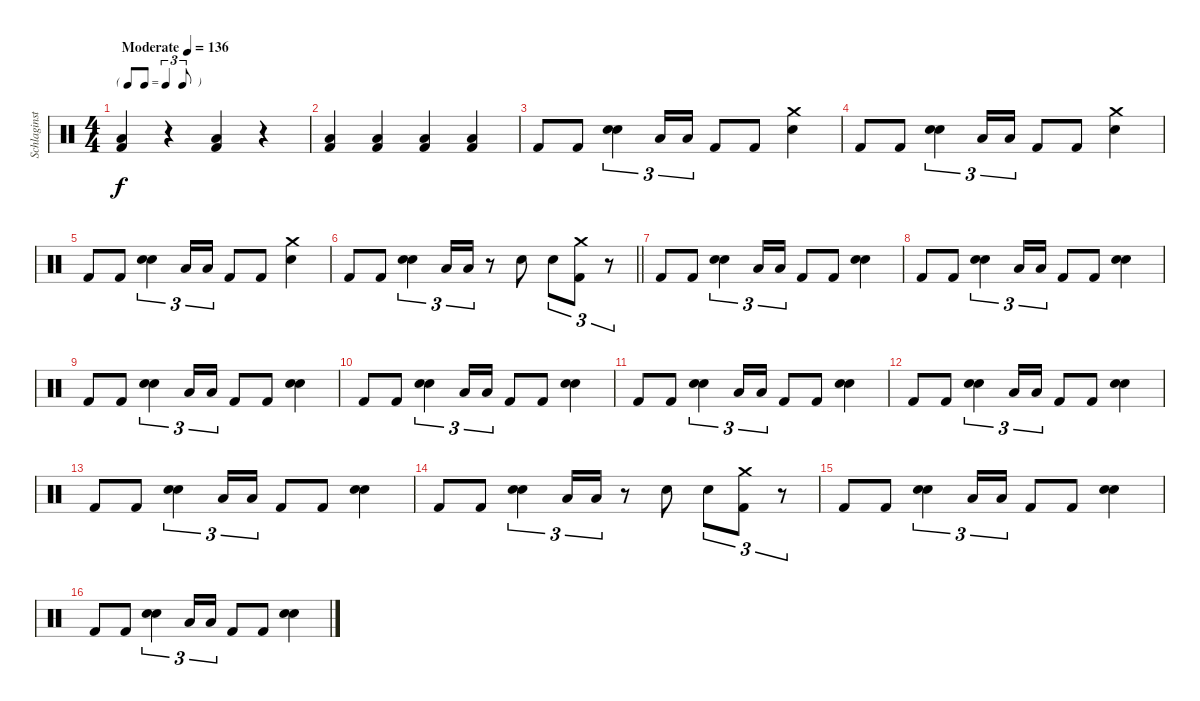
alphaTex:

\track ("Schlaginstrumente - Auswahl" "Schlaginst") {instrument percussion}
\staff {score}
\articulation defaults
\ts (4 4)
\tf triplet8th
\tempo (136 "Moderate")
\clef neutral
\ks c
("Low Floor Tom (hit)" "Kick (hit) 2").4{dy f} r.4 ("Low Floor Tom (hit)" "Kick (hit) 2").4 r.4 |
("Low Floor Tom (hit)" "Kick (hit) 2").4 ("Low Floor Tom (hit)" "Kick (hit) 2").4 ("Low Floor Tom (hit)" "Kick (hit) 2").4 ("Low Floor Tom (hit)" "Kick (hit) 2").4 |
"Kick (hit) 2".8 "Kick (hit) 2".8 ("Snare (hit) 2" "Snare (hit) 2").4{tu (3 2) bd 240} "Low Tom (hit)".16{tu (3 2)} "Low Floor Tom (hit)".16{tu (3 2)} "Kick (hit) 2".8 "Kick (hit) 2".8 ("Crash medium (hit)" "Snare (hit) 2").4 |
"Kick (hit) 2".8 "Kick (hit) 2".8 ("Snare (hit) 2" "Snare (hit) 2").4{tu (3 2) bd 240} "Low Tom (hit)".16{tu (3 2)} "Low Floor Tom (hit)".16{tu (3 2)} "Kick (hit) 2".8 "Kick (hit) 2".8 ("Crash medium (hit)" "Snare (hit) 2").4 |
"Kick (hit) 2".8 "Kick (hit) 2".8 ("Snare (hit) 2" "Snare (hit) 2").4{tu (3 2) bd 240} "Low Tom (hit)".16{tu (3 2)} "Low Floor Tom (hit)".16{tu (3 2)} "Kick (hit) 2".8 "Kick (hit) 2".8 ("Crash medium (hit)" "Snare (hit) 2").4 |
\barLineRight lightlight "Kick (hit) 2".8 "Kick (hit) 2".8
("Snare (hit) 2" "Snare (hit) 2").4{tu (3 2) bd 240} "Low Tom (hit)".16{tu (3 2)} "Low Floor Tom (hit)".16{tu (3 2)} r.8 "Snare (hit) 2".8 "Snare (hit) 2".8{tu (3 2)} ("Crash medium (hit)" "Kick (hit) 2").8{tu (3 2)} r.8{tu (3 2)} |
"Kick (hit) 2".8 "Kick (hit) 2".8 ("Snare (hit) 2" "Snare (hit) 2").4{tu (3 2) bd 240} "Low Tom (hit)".16{tu (3 2)} "Low Floor Tom (hit)".16{tu (3 2)} "Kick (hit) 2".8 "Kick (hit) 2".8 ("Snare (hit) 2" "Snare (hit) 2").4{bd 240} |
"Kick (hit) 2".8 "Kick (hit) 2".8 ("Snare (hit) 2" "Snare (hit) 2").4{tu (3 2) bd 240} "Low Tom (hit)".16{tu (3 2)} "Low Floor Tom (hit)".16{tu (3 2)} "Kick (hit) 2".8 "Kick (hit) 2".8 ("Snare (hit) 2" "Snare (hit) 2").4{bd 240} |
"Kick (hit) 2".8 "Kick (hit) 2".8 ("Snare (hit) 2" "Snare (hit) 2").4{tu (3 2) bd 240} "Low Tom (hit)".16{tu (3 2)} "Low Floor Tom (hit)".16{tu (3 2)} "Kick (hit) 2".8 "Kick (hit) 2".8 ("Snare (hit) 2" "Snare (hit) 2").4{bd 240} |
"Kick (hit) 2".8 "Kick (hit) 2".8 ("Snare (hit) 2" "Snare (hit) 2").4{tu (3 2) bd 240} "Low Tom (hit)".16{tu (3 2)} "Low Floor Tom (hit)".16{tu (3 2)} "Kick (hit) 2".8 "Kick (hit) 2".8 ("Snare (hit) 2" "Snare (hit) 2").4{bd 240} |
"Kick (hit) 2".8 "Kick (hit) 2".8 ("Snare (hit) 2" "Snare (hit) 2").4{tu (3 2) bd 240} "Low Tom (hit)".16{tu (3 2)} "Low Floor Tom (hit)".16{tu (3 2)} "Kick (hit) 2".8 "Kick (hit) 2".8 ("Snare (hit) 2" "Snare (hit) 2").4{bd 240} |
"Kick (hit) 2".8 "Kick (hit) 2".8 ("Snare (hit) 2" "Snare (hit) 2").4{tu (3 2) bd 240} "Low Tom (hit)".16{tu (3 2)} "Low Floor Tom (hit)".16{tu (3 2)} "Kick (hit) 2".8 "Kick (hit) 2".8 ("Snare (hit) 2" "Snare (hit) 2").4{bd 240} |
"Kick (hit) 2".8 "Kick (hit) 2".8 ("Snare (hit) 2" "Snare (hit) 2").4{tu (3 2) bd 240} "Low Tom (hit)".16{tu (3 2)} "Low Floor Tom (hit)".16{tu (3 2)} "Kick (hit) 2".8 "Kick (hit) 2".8 ("Snare (hit) 2" "Snare (hit) 2").4{bd 240} |
"Kick (hit) 2".8 "Kick (hit) 2".8 ("Snare (hit) 2" "Snare (hit) 2").4{tu (3 2) bd 240} "Low Tom (hit)".16{tu (3 2)} "Low Floor Tom (hit)".16{tu (3 2)} r.8 "Snare (hit) 2".8 "Snare (hit) 2".8{tu (3 2)} ("Crash medium (hit)" "Kick (hit) 2").8{tu (3 2)} r.8{tu (3 2)} |
"Kick (hit) 2".8 "Kick (hit) 2".8 ("Snare (hit) 2" "Snare (hit) 2").4{tu (3 2) bd 240} "Low Tom (hit)".16{tu (3 2)} "Low Floor Tom (hit)".16{tu (3 2)} "Kick (hit) 2".8 "Kick (hit) 2".8 ("Snare (hit) 2" "Snare (hit) 2").4{bd 240} |
"Kick (hit) 2".8 "Kick (hit) 2".8 ("Snare (hit) 2" "Snare (hit) 2").4{tu (3 2) bd 240} "Low Tom (hit)".16{tu (3 2)} "Low Floor Tom (hit)".16{tu (3 2)} "Kick (hit) 2".8 "Kick (hit) 2".8 ("Snare (hit) 2" "Snare (hit) 2").4{bd 240}
